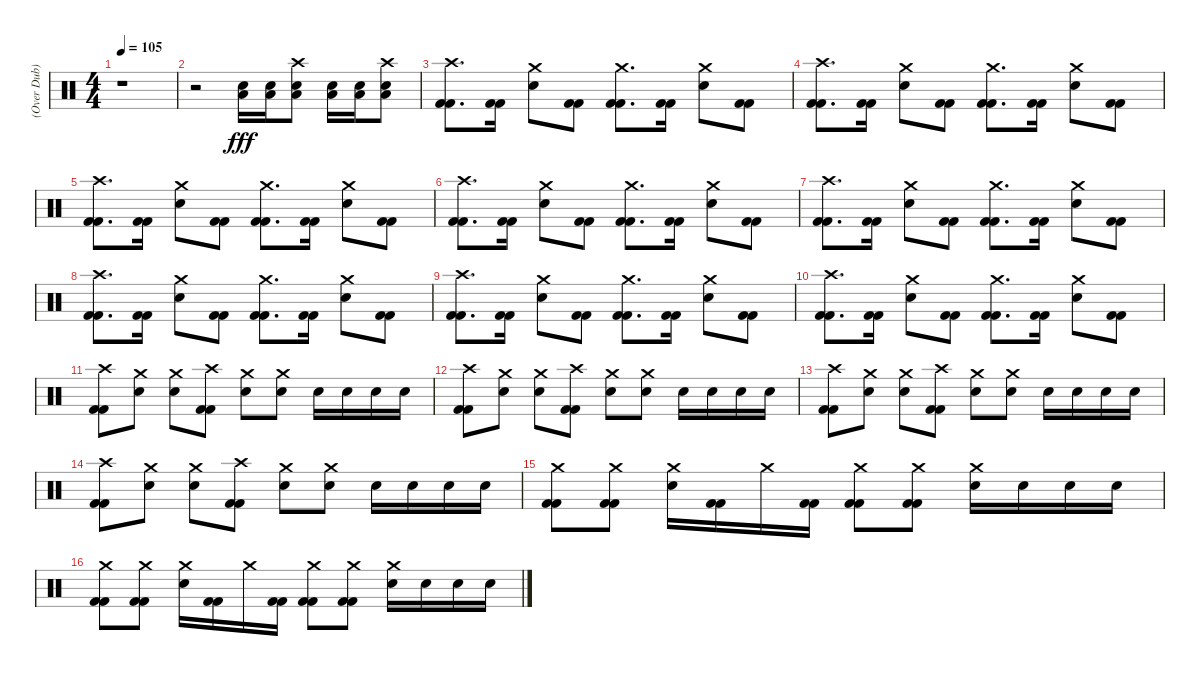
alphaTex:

\track ("(Over Dub)" "(Over Dub)") {instrument percussion}
\staff {score}
\articulation defaults
\ts (4 4)
\tempo 105
\clef neutral
\ks c
r.1{dy fff} |
r.2 ("Low Floor Tom (hit)" "Electric Snare (hit)").16 ("Low Floor Tom (hit)" "Electric Snare (hit)").16 ("Crash high (hit)" "Low Floor Tom (hit)" "Electric Snare (hit)").8 ("Low Floor Tom (hit)" "Electric Snare (hit)").16 ("Low Floor Tom (hit)" "Electric Snare (hit)").16 ("Crash high (hit)" "Low Floor Tom (hit)" "Electric Snare (hit)").8 |
("Crash high (hit)" "Kick (hit) 2" "Kick (hit) 2").8{d} ("Kick (hit) 2" "Kick (hit) 2").16 ("Crash medium (hit)" "Electric Snare (hit)").8 ("Kick (hit) 2" "Kick (hit) 2").8 ("Crash medium (hit)" "Kick (hit) 2" "Kick (hit) 2").8{d} ("Kick (hit) 2" "Kick (hit) 2").16 ("Crash medium (hit)" "Electric Snare (hit)").8 ("Kick (hit) 2" "Kick (hit) 2").8 |
("Crash high (hit)" "Kick (hit) 2" "Kick (hit) 2").8{d} ("Kick (hit) 2" "Kick (hit) 2").16 ("Crash medium (hit)" "Electric Snare (hit)").8 ("Kick (hit) 2" "Kick (hit) 2").8 ("Crash medium (hit)" "Kick (hit) 2" "Kick (hit) 2").8{d} ("Kick (hit) 2" "Kick (hit) 2").16 ("Crash medium (hit)" "Electric Snare (hit)").8 ("Kick (hit) 2" "Kick (hit) 2").8 |
("Crash high (hit)" "Kick (hit) 2" "Kick (hit) 2").8{d} ("Kick (hit) 2" "Kick (hit) 2").16 ("Crash medium (hit)" "Electric Snare (hit)").8 ("Kick (hit) 2" "Kick (hit) 2").8 ("Crash medium (hit)" "Kick (hit) 2" "Kick (hit) 2").8{d} ("Kick (hit) 2" "Kick (hit) 2").16 ("Crash medium (hit)" "Electric Snare (hit)").8 ("Kick (hit) 2" "Kick (hit) 2").8 |
("Crash high (hit)" "Kick (hit) 2" "Kick (hit) 2").8{d} ("Kick (hit) 2" "Kick (hit) 2").16 ("Crash medium (hit)" "Electric Snare (hit)").8 ("Kick (hit) 2" "Kick (hit) 2").8 ("Crash medium (hit)" "Kick (hit) 2" "Kick (hit) 2").8{d} ("Kick (hit) 2" "Kick (hit) 2").16 ("Crash medium (hit)" "Electric Snare (hit)").8 ("Kick (hit) 2" "Kick (hit) 2").8 |
("Crash high (hit)" "Kick (hit) 2" "Kick (hit) 2").8{d} ("Kick (hit) 2" "Kick (hit) 2").16 ("Crash medium (hit)" "Electric Snare (hit)").8 ("Kick (hit) 2" "Kick (hit) 2").8 ("Crash medium (hit)" "Kick (hit) 2" "Kick (hit) 2").8{d} ("Kick (hit) 2" "Kick (hit) 2").16 ("Crash medium (hit)" "Electric Snare (hit)").8 ("Kick (hit) 2" "Kick (hit) 2").8 |
("Crash high (hit)" "Kick (hit) 2" "Kick (hit) 2").8{d} ("Kick (hit) 2" "Kick (hit) 2").16 ("Crash medium (hit)" "Electric Snare (hit)").8 ("Kick (hit) 2" "Kick (hit) 2").8 ("Crash medium (hit)" "Kick (hit) 2" "Kick (hit) 2").8{d} ("Kick (hit) 2" "Kick (hit) 2").16 ("Crash medium (hit)" "Electric Snare (hit)").8 ("Kick (hit) 2" "Kick (hit) 2").8 |
("Crash high (hit)" "Kick (hit) 2" "Kick (hit) 2").8{d} ("Kick (hit) 2" "Kick (hit) 2").16 ("Crash medium (hit)" "Electric Snare (hit)").8 ("Kick (hit) 2" "Kick (hit) 2").8 ("Crash medium (hit)" "Kick (hit) 2" "Kick (hit) 2").8{d} ("Kick (hit) 2" "Kick (hit) 2").16 ("Crash medium (hit)" "Electric Snare (hit)").8 ("Kick (hit) 2" "Kick (hit) 2").8 |
("Crash high (hit)" "Kick (hit) 2" "Kick (hit) 2").8{d} ("Kick (hit) 2" "Kick (hit) 2").16 ("Crash medium (hit)" "Electric Snare (hit)").8 ("Kick (hit) 2" "Kick (hit) 2").8 ("Crash medium (hit)" "Kick (hit) 2" "Kick (hit) 2").8{d} ("Kick (hit) 2" "Kick (hit) 2").16 ("Crash medium (hit)" "Electric Snare (hit)").8 ("Kick (hit) 2" "Kick (hit) 2").8 |
("Crash high (hit)" "Kick (hit) 2" "Kick (hit) 2").8 ("Crash medium (hit)" "Electric Snare (hit)").8 ("Crash medium (hit)" "Electric Snare (hit)").8 ("Crash high (hit)" "Kick (hit) 2" "Kick (hit) 2").8 ("Crash medium (hit)" "Electric Snare (hit)").8 ("Crash medium (hit)" "Electric Snare (hit)").8 "Electric Snare (hit)".16 "Electric Snare (hit)".16 "Electric Snare (hit)".16 "Electric Snare (hit)".16 |
("Crash high (hit)" "Kick (hit) 2" "Kick (hit) 2").8 ("Crash medium (hit)" "Electric Snare (hit)").8 ("Crash medium (hit)" "Electric Snare (hit)").8 ("Crash high (hit)" "Kick (hit) 2" "Kick (hit) 2").8 ("Crash medium (hit)" "Electric Snare (hit)").8 ("Crash medium (hit)" "Electric Snare (hit)").8 "Electric Snare (hit)".16 "Electric Snare (hit)".16 "Electric Snare (hit)".16 "Electric Snare (hit)".16 |
("Crash high (hit)" "Kick (hit) 2" "Kick (hit) 2").8 ("Crash medium (hit)" "Electric Snare (hit)").8 ("Crash medium (hit)" "Electric Snare (hit)").8 ("Crash high (hit)" "Kick (hit) 2" "Kick (hit) 2").8 ("Crash medium (hit)" "Electric Snare (hit)").8 ("Crash medium (hit)" "Electric Snare (hit)").8 "Electric Snare (hit)".16 "Electric Snare (hit)".16 "Electric Snare (hit)".16 "Electric Snare (hit)".16 |
("Crash high (hit)" "Kick (hit) 2" "Kick (hit) 2").8 ("Crash medium (hit)" "Electric Snare (hit)").8 ("Crash medium (hit)" "Electric Snare (hit)").8 ("Crash high (hit)" "Kick (hit) 2" "Kick (hit) 2").8 ("Crash medium (hit)" "Electric Snare (hit)").8 ("Crash medium (hit)" "Electric Snare (hit)").8 "Electric Snare (hit)".16 "Electric Snare (hit)".16 "Electric Snare (hit)".16 "Electric Snare (hit)".16 |
("Crash medium (hit)" "Kick (hit) 2" "Kick (hit) 2").8 ("Crash medium (hit)" "Kick (hit) 2" "Kick (hit) 2").8 ("Crash medium (hit)" "Electric Snare (hit)").16 ("Kick (hit) 2" "Kick (hit) 2").16 "Crash medium (hit)".16 ("Kick (hit) 2" "Kick (hit) 2").16 ("Crash medium (hit)" "Kick (hit) 2" "Kick (hit) 2").8 ("Crash medium (hit)" "Kick (hit) 2" "Kick (hit) 2").8 ("Crash medium (hit)" "Electric Snare (hit)").16 "Electric Snare (hit)".16 "Electric Snare (hit)".16 "Electric Snare (hit)".16 |
("Crash medium (hit)" "Kick (hit) 2" "Kick (hit) 2").8 ("Crash medium (hit)" "Kick (hit) 2" "Kick (hit) 2").8 ("Crash medium (hit)" "Electric Snare (hit)").16 ("Kick (hit) 2" "Kick (hit) 2").16 "Crash medium (hit)".16 ("Kick (hit) 2" "Kick (hit) 2").16 ("Crash medium (hit)" "Kick (hit) 2" "Kick (hit) 2").8 ("Crash medium (hit)" "Kick (hit) 2" "Kick (hit) 2").8 ("Crash medium (hit)" "Electric Snare (hit)").16 "Electric Snare (hit)".16 "Electric Snare (hit)".16 "Electric Snare (hit)".16
